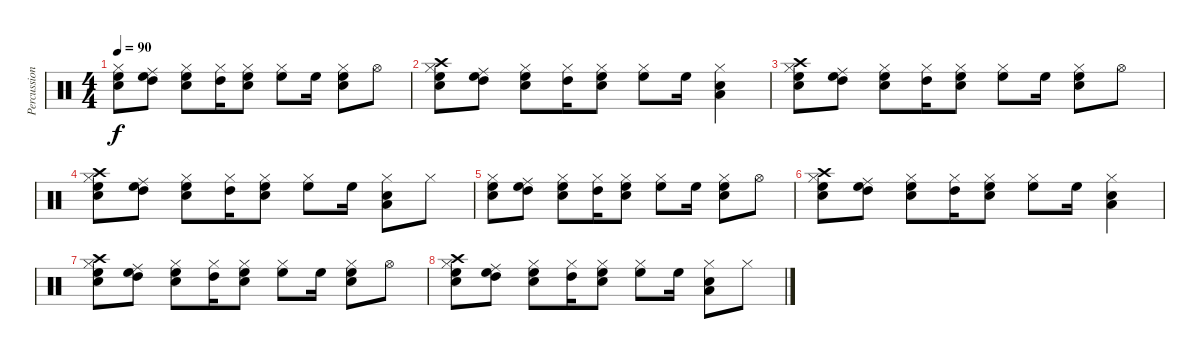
\track ("Percussions" "Percussion") {instrument percussion}
\staff {score}
\articulation defaults
\ts (4 4)
\tempo 90
\clef neutral
\ks c
("Hi-Hat (closed)" "Snare (hit) 2" "High Floor Tom (hit)").8{dy f} ("Ride (middle)" "High Floor Tom (hit)" "High Tom (hit)").8 ("Hi-Hat (closed)" "Snare (hit) 2" "High Floor Tom (hit)").8 ("Hi-Hat (closed)" "High Tom (hit)").16 ("Hi-Hat (closed)" "Snare (hit) 2" "High Floor Tom (hit)").8 ("Hi-Hat (closed)" "High Floor Tom (hit)").8 "High Floor Tom (hit)".16 ("Hi-Hat (closed)" "Snare (hit) 2" "High Floor Tom (hit)").8 "Hi-Hat (open)".8 |
("Hi-Hat (closed)" "Snare (hit) 2" "High Floor Tom (hit)" "Crash high (hit)").8 ("Ride (middle)" "High Floor Tom (hit)" "High Tom (hit)").8 ("Hi-Hat (closed)" "Snare (hit) 2" "High Floor Tom (hit)").8 ("Hi-Hat (closed)" "High Tom (hit)").16 ("Hi-Hat (closed)" "Snare (hit) 2" "High Floor Tom (hit)").8 ("Hi-Hat (closed)" "High Floor Tom (hit)").8 "High Floor Tom (hit)".16 ("Hi-Hat (closed)" "Snare (hit) 2" "Low Floor Tom (hit)").4 |
("Hi-Hat (closed)" "Snare (hit) 2" "High Floor Tom (hit)" "Crash high (hit)").8 ("Ride (middle)" "High Floor Tom (hit)" "High Tom (hit)").8 ("Hi-Hat (closed)" "Snare (hit) 2" "High Floor Tom (hit)").8 ("Hi-Hat (closed)" "High Tom (hit)").16 ("Hi-Hat (closed)" "Snare (hit) 2" "High Floor Tom (hit)").8 ("Hi-Hat (closed)" "High Floor Tom (hit)").8 "High Floor Tom (hit)".16 ("Hi-Hat (closed)" "Snare (hit) 2" "High Floor Tom (hit)").8 "Hi-Hat (open)".8 |
("Hi-Hat (closed)" "Snare (hit) 2" "High Floor Tom (hit)" "Crash high (hit)").8 ("Ride (middle)" "High Floor Tom (hit)" "High Tom (hit)").8 ("Hi-Hat (closed)" "Snare (hit) 2" "High Floor Tom (hit)").8 ("Hi-Hat (closed)" "High Tom (hit)").16 ("Hi-Hat (closed)" "Snare (hit) 2" "High Floor Tom (hit)").8 ("Hi-Hat (closed)" "High Floor Tom (hit)").8 "High Floor Tom (hit)".16 ("Hi-Hat (closed)" "Snare (hit) 2" "Low Floor Tom (hit)").8 "Hi-Hat (closed)".8 |
("Hi-Hat (closed)" "Snare (hit) 2" "High Floor Tom (hit)").8 ("Ride (middle)" "High Floor Tom (hit)" "High Tom (hit)").8 ("Hi-Hat (closed)" "Snare (hit) 2" "High Floor Tom (hit)").8 ("Hi-Hat (closed)" "High Tom (hit)").16 ("Hi-Hat (closed)" "Snare (hit) 2" "High Floor Tom (hit)").8 ("Hi-Hat (closed)" "High Floor Tom (hit)").8 "High Floor Tom (hit)".16 ("Hi-Hat (closed)" "Snare (hit) 2" "High Floor Tom (hit)").8 "Hi-Hat (open)".8 |
("Hi-Hat (closed)" "Snare (hit) 2" "High Floor Tom (hit)" "Crash high (hit)").8 ("Ride (middle)" "High Floor Tom (hit)" "High Tom (hit)").8 ("Hi-Hat (closed)" "Snare (hit) 2" "High Floor Tom (hit)").8 ("Hi-Hat (closed)" "High Tom (hit)").16 ("Hi-Hat (closed)" "Snare (hit) 2" "High Floor Tom (hit)").8 ("Hi-Hat (closed)" "High Floor Tom (hit)").8 "High Floor Tom (hit)".16 ("Hi-Hat (closed)" "Snare (hit) 2" "Low Floor Tom (hit)").4 |
("Hi-Hat (closed)" "Snare (hit) 2" "High Floor Tom (hit)" "Crash high (hit)").8 ("Ride (middle)" "High Floor Tom (hit)" "High Tom (hit)").8 ("Hi-Hat (closed)" "Snare (hit) 2" "High Floor Tom (hit)").8 ("Hi-Hat (closed)" "High Tom (hit)").16 ("Hi-Hat (closed)" "Snare (hit) 2" "High Floor Tom (hit)").8 ("Hi-Hat (closed)" "High Floor Tom (hit)").8 "High Floor Tom (hit)".16 ("Hi-Hat (closed)" "Snare (hit) 2" "High Floor Tom (hit)").8 "Hi-Hat (open)".8 |
("Hi-Hat (closed)" "Snare (hit) 2" "High Floor Tom (hit)" "Crash high (hit)").8 ("Ride (middle)" "High Floor Tom (hit)" "High Tom (hit)").8 ("Hi-Hat (closed)" "Snare (hit) 2" "High Floor Tom (hit)").8 ("Hi-Hat (closed)" "High Tom (hit)").16 ("Hi-Hat (closed)" "Snare (hit) 2" "High Floor Tom (hit)").8 ("Hi-Hat (closed)" "High Floor Tom (hit)").8 "High Floor Tom (hit)".16 ("Hi-Hat (closed)" "Snare (hit) 2" "Low Floor Tom (hit)").8 "Hi-Hat (closed)".8
